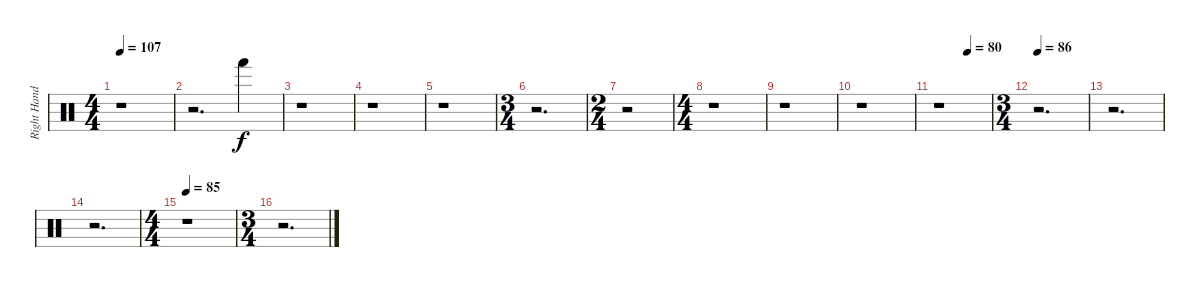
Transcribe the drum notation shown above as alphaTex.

\track ("Right Hand Rythm" "Right Hand") {instrument percussion}
\staff {score}
\articulation defaults
\ts (4 4)
\tempo 107
\clef neutral
\ks c
r.1{dy f} |
r.2{d} "Hand (hit)".4 |
r.1 |
r.1 |
r.1 |
\ts (3 4)
r.2{d} |
\ts (2 4)
r.2 |
\ts (4 4)
r.1 |
r.1 |
r.1 |
\tempo (80 0.5625)
r.1 |
\ts (3 4)
\tempo 86
r.2{d} |
r.2{d} |
r.2{d} |
\ts (4 4)
\tempo 85
r.1 |
\ts (3 4)
r.2{d}
